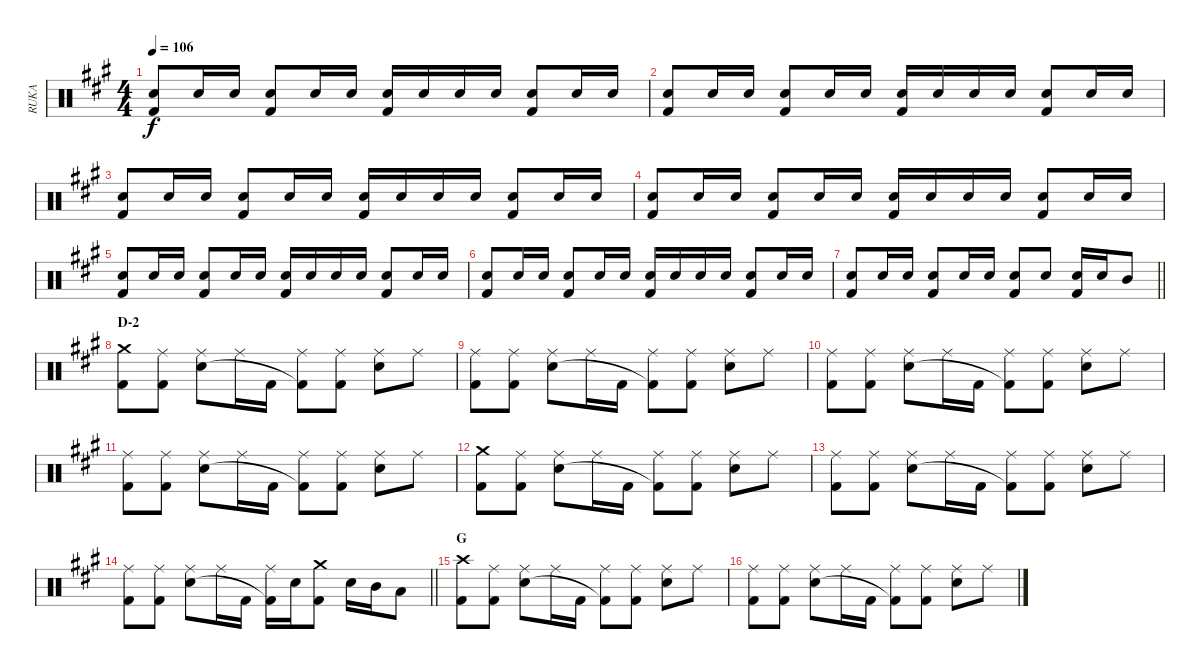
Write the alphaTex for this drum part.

\track ("RUKA" "RUKA") {instrument percussion}
\staff {score}
\articulation defaults
\ts (4 4)
\tempo 106
\clef neutral
\ks a
("Snare (hit) 2" "Kick (hit) 2").8{dy f} "Snare (hit) 2".16 "Snare (hit) 2".16 ("Snare (hit) 2" "Kick (hit) 2").8 "Snare (hit) 2".16 "Snare (hit) 2".16 ("Snare (hit) 2" "Kick (hit) 2").16 "Snare (hit) 2".16 "Snare (hit) 2".16 "Snare (hit) 2".16 ("Snare (hit) 2" "Kick (hit) 2").8 "Snare (hit) 2".16 "Snare (hit) 2".16 |
("Snare (hit) 2" "Kick (hit) 2").8 "Snare (hit) 2".16 "Snare (hit) 2".16 ("Snare (hit) 2" "Kick (hit) 2").8 "Snare (hit) 2".16 "Snare (hit) 2".16 ("Snare (hit) 2" "Kick (hit) 2").16 "Snare (hit) 2".16 "Snare (hit) 2".16 "Snare (hit) 2".16 ("Snare (hit) 2" "Kick (hit) 2").8 "Snare (hit) 2".16 "Snare (hit) 2".16 |
("Snare (hit) 2" "Kick (hit) 2").8 "Snare (hit) 2".16 "Snare (hit) 2".16 ("Snare (hit) 2" "Kick (hit) 2").8 "Snare (hit) 2".16 "Snare (hit) 2".16 ("Snare (hit) 2" "Kick (hit) 2").16 "Snare (hit) 2".16 "Snare (hit) 2".16 "Snare (hit) 2".16 ("Snare (hit) 2" "Kick (hit) 2").8 "Snare (hit) 2".16 "Snare (hit) 2".16 |
("Snare (hit) 2" "Kick (hit) 2").8 "Snare (hit) 2".16 "Snare (hit) 2".16 ("Snare (hit) 2" "Kick (hit) 2").8 "Snare (hit) 2".16 "Snare (hit) 2".16 ("Snare (hit) 2" "Kick (hit) 2").16 "Snare (hit) 2".16 "Snare (hit) 2".16 "Snare (hit) 2".16 ("Snare (hit) 2" "Kick (hit) 2").8 "Snare (hit) 2".16 "Snare (hit) 2".16 |
("Snare (hit) 2" "Kick (hit) 2").8 "Snare (hit) 2".16 "Snare (hit) 2".16 ("Snare (hit) 2" "Kick (hit) 2").8 "Snare (hit) 2".16 "Snare (hit) 2".16 ("Snare (hit) 2" "Kick (hit) 2").16 "Snare (hit) 2".16 "Snare (hit) 2".16 "Snare (hit) 2".16 ("Snare (hit) 2" "Kick (hit) 2").8 "Snare (hit) 2".16 "Snare (hit) 2".16 |
("Snare (hit) 2" "Kick (hit) 2").8 "Snare (hit) 2".16 "Snare (hit) 2".16 ("Snare (hit) 2" "Kick (hit) 2").8 "Snare (hit) 2".16 "Snare (hit) 2".16 ("Snare (hit) 2" "Kick (hit) 2").16 "Snare (hit) 2".16 "Snare (hit) 2".16 "Snare (hit) 2".16 ("Snare (hit) 2" "Kick (hit) 2").8 "Snare (hit) 2".16 "Snare (hit) 2".16 |
\barLineRight lightlight
("Snare (hit) 2" "Kick (hit) 2").8 "Snare (hit) 2".16 "Snare (hit) 2".16 ("Snare (hit) 2" "Kick (hit) 2").8 "Snare (hit) 2".16 "Snare (hit) 2".16 ("Snare (hit) 2" "Kick (hit) 2").8 "Snare (hit) 2".8 ("Snare (hit) 2" "Kick (hit) 2").16 "Snare (hit) 2".16 "Mid Tom (hit)".8 |
\section ("" "D-2")
("Crash medium (hit)" "Kick (hit) 2").8 ("Ride (middle)" "Kick (hit) 2").8 ("Ride (middle)" "Snare (hit) 2").8 "Ride (middle)".16 "Kick (hit) 2".16 ("Ride (middle)" "Kick (hit) 2"{t}).8 ("Ride (middle)" "Kick (hit) 2").8 ("Ride (middle)" "Snare (hit) 2").8 "Ride (middle)".8 |
("Ride (middle)" "Kick (hit) 2").8 ("Ride (middle)" "Kick (hit) 2").8 ("Ride (middle)" "Snare (hit) 2").8 "Ride (middle)".16 "Kick (hit) 2".16 ("Ride (middle)" "Kick (hit) 2"{t}).8 ("Ride (middle)" "Kick (hit) 2").8 ("Ride (middle)" "Snare (hit) 2").8 "Ride (middle)".8 |
("Ride (middle)" "Kick (hit) 2").8 ("Ride (middle)" "Kick (hit) 2").8 ("Ride (middle)" "Snare (hit) 2").8 "Ride (middle)".16 "Kick (hit) 2".16 ("Ride (middle)" "Kick (hit) 2"{t}).8 ("Ride (middle)" "Kick (hit) 2").8 ("Ride (middle)" "Snare (hit) 2").8 "Ride (middle)".8 |
("Ride (middle)" "Kick (hit) 2").8 ("Ride (middle)" "Kick (hit) 2").8 ("Ride (middle)" "Snare (hit) 2").8 "Ride (middle)".16 "Kick (hit) 2".16 ("Ride (middle)" "Kick (hit) 2"{t}).8 ("Ride (middle)" "Kick (hit) 2").8 ("Ride (middle)" "Snare (hit) 2").8 "Ride (middle)".8 |
("Crash medium (hit)" "Kick (hit) 2").8 ("Ride (middle)" "Kick (hit) 2").8 ("Ride (middle)" "Snare (hit) 2").8 "Ride (middle)".16 "Kick (hit) 2".16 ("Ride (middle)" "Kick (hit) 2"{t}).8 ("Ride (middle)" "Kick (hit) 2").8 ("Ride (middle)" "Snare (hit) 2").8 "Ride (middle)".8 |
("Ride (middle)" "Kick (hit) 2").8 ("Ride (middle)" "Kick (hit) 2").8 ("Ride (middle)" "Snare (hit) 2").8 "Ride (middle)".16 "Kick (hit) 2".16 ("Ride (middle)" "Kick (hit) 2"{t}).8 ("Ride (middle)" "Kick (hit) 2").8 ("Ride (middle)" "Snare (hit) 2").8 "Ride (middle)".8 |
\barLineRight lightlight
("Ride (middle)" "Kick (hit) 2").8 ("Ride (middle)" "Kick (hit) 2").8 ("Ride (middle)" "Snare (hit) 2").8 "Ride (middle)".16 "Kick (hit) 2".16 ("Ride (middle)" "Kick (hit) 2"{t}).16 "Snare (hit) 2".16 ("Crash medium (hit)" "Kick (hit) 2").8 "Snare (hit) 2".16 "Mid Tom (hit)".16 "Low Tom (hit)".8 |
\section ("" "G")
("Crash high (hit)" "Kick (hit) 2").8 ("Ride (middle)" "Kick (hit) 2").8 ("Ride (middle)" "Snare (hit) 2").8 "Ride (middle)".16 "Kick (hit) 2".16 ("Ride (middle)" "Kick (hit) 2"{t}).8 ("Ride (middle)" "Kick (hit) 2").8 ("Ride (middle)" "Snare (hit) 2").8 "Ride (middle)".8 |
("Ride (middle)" "Kick (hit) 2").8 ("Ride (middle)" "Kick (hit) 2").8 ("Ride (middle)" "Snare (hit) 2").8 "Ride (middle)".16 "Kick (hit) 2".16 ("Ride (middle)" "Kick (hit) 2"{t}).8 ("Ride (middle)" "Kick (hit) 2").8 ("Ride (middle)" "Snare (hit) 2").8 "Ride (middle)".8
